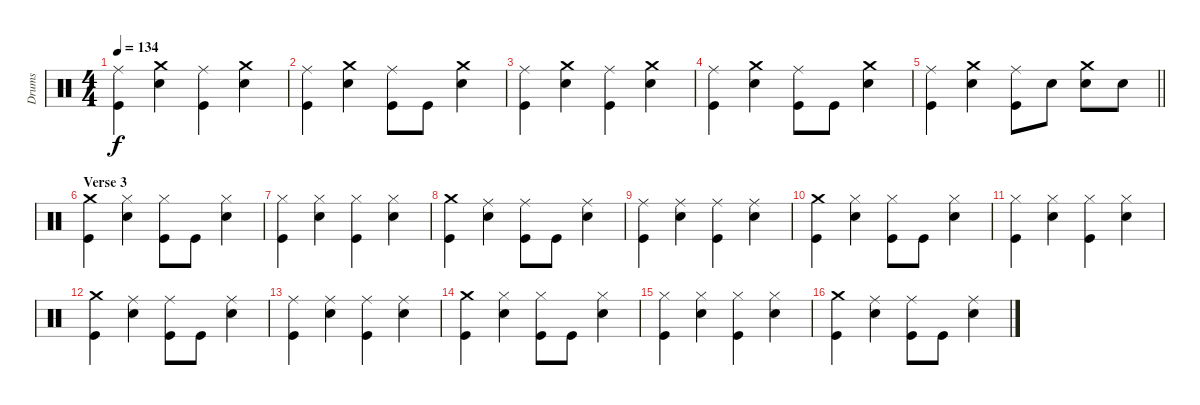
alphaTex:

\track ("Drums" "Drums") {instrument percussion}
\staff {score}
\articulation defaults
\ts (4 4)
\tempo 134
\clef neutral
\ks c
("Ride (middle)" "Kick (hit)").4{dy f} ("Crash medium (hit)" "Snare (hit) 2").4 ("Ride (middle)" "Kick (hit)").4 ("Crash medium (hit)" "Snare (hit) 2").4 |
("Ride (middle)" "Kick (hit)").4 ("Crash medium (hit)" "Snare (hit) 2").4 ("Ride (middle)" "Kick (hit)").8 "Kick (hit)".8 ("Crash medium (hit)" "Snare (hit) 2").4 |
("Ride (middle)" "Kick (hit)").4 ("Crash medium (hit)" "Snare (hit) 2").4 ("Ride (middle)" "Kick (hit)").4 ("Crash medium (hit)" "Snare (hit) 2").4 |
("Ride (middle)" "Kick (hit)").4 ("Crash medium (hit)" "Snare (hit) 2").4 ("Ride (middle)" "Kick (hit)").8 "Kick (hit)".8 ("Crash medium (hit)" "Snare (hit) 2").4 |
\barLineRight lightlight
("Ride (middle)" "Kick (hit)").4 ("Crash medium (hit)" "Snare (hit) 2").4 ("Ride (middle)" "Kick (hit)").8 "Snare (hit) 2".8 ("Crash medium (hit)" "Snare (hit) 2").8 "Snare (hit) 2".8 |
\section ("" "Verse 3")
("Crash medium (hit)" "Kick (hit)").4 ("Hi-Hat (closed)" "Snare (hit) 2").4 ("Hi-Hat (closed)" "Kick (hit)").8 "Kick (hit)".8 ("Hi-Hat (closed)" "Snare (hit) 2").4 |
("Hi-Hat (closed)" "Kick (hit)").4 ("Hi-Hat (closed)" "Snare (hit) 2").4 ("Hi-Hat (closed)" "Kick (hit)").4 ("Hi-Hat (closed)" "Snare (hit) 2").4 |
("Crash medium (hit)" "Kick (hit)").4 ("Ride (middle)" "Snare (hit) 2").4 ("Ride (middle)" "Kick (hit)").8 "Kick (hit)".8 ("Ride (middle)" "Snare (hit) 2").4 |
("Ride (middle)" "Kick (hit)").4 ("Ride (middle)" "Snare (hit) 2").4 ("Ride (middle)" "Kick (hit)").4 ("Ride (middle)" "Snare (hit) 2").4 |
("Crash medium (hit)" "Kick (hit)").4 ("Hi-Hat (closed)" "Snare (hit) 2").4 ("Hi-Hat (closed)" "Kick (hit)").8 "Kick (hit)".8 ("Hi-Hat (closed)" "Snare (hit) 2").4 |
("Hi-Hat (closed)" "Kick (hit)").4 ("Hi-Hat (closed)" "Snare (hit) 2").4 ("Hi-Hat (closed)" "Kick (hit)").4 ("Hi-Hat (closed)" "Snare (hit) 2").4 |
("Crash medium (hit)" "Kick (hit)").4 ("Ride (middle)" "Snare (hit) 2").4 ("Ride (middle)" "Kick (hit)").8 "Kick (hit)".8 ("Ride (middle)" "Snare (hit) 2").4 |
("Ride (middle)" "Kick (hit)").4 ("Ride (middle)" "Snare (hit) 2").4 ("Ride (middle)" "Kick (hit)").4 ("Ride (middle)" "Snare (hit) 2").4 |
("Crash medium (hit)" "Kick (hit)").4 ("Hi-Hat (closed)" "Snare (hit) 2").4 ("Hi-Hat (closed)" "Kick (hit)").8 "Kick (hit)".8 ("Hi-Hat (closed)" "Snare (hit) 2").4 |
("Hi-Hat (closed)" "Kick (hit)").4 ("Hi-Hat (closed)" "Snare (hit) 2").4 ("Hi-Hat (closed)" "Kick (hit)").4 ("Hi-Hat (closed)" "Snare (hit) 2").4 |
("Crash medium (hit)" "Kick (hit)").4 ("Ride (middle)" "Snare (hit) 2").4 ("Ride (middle)" "Kick (hit)").8 "Kick (hit)".8 ("Ride (middle)" "Snare (hit) 2").4
